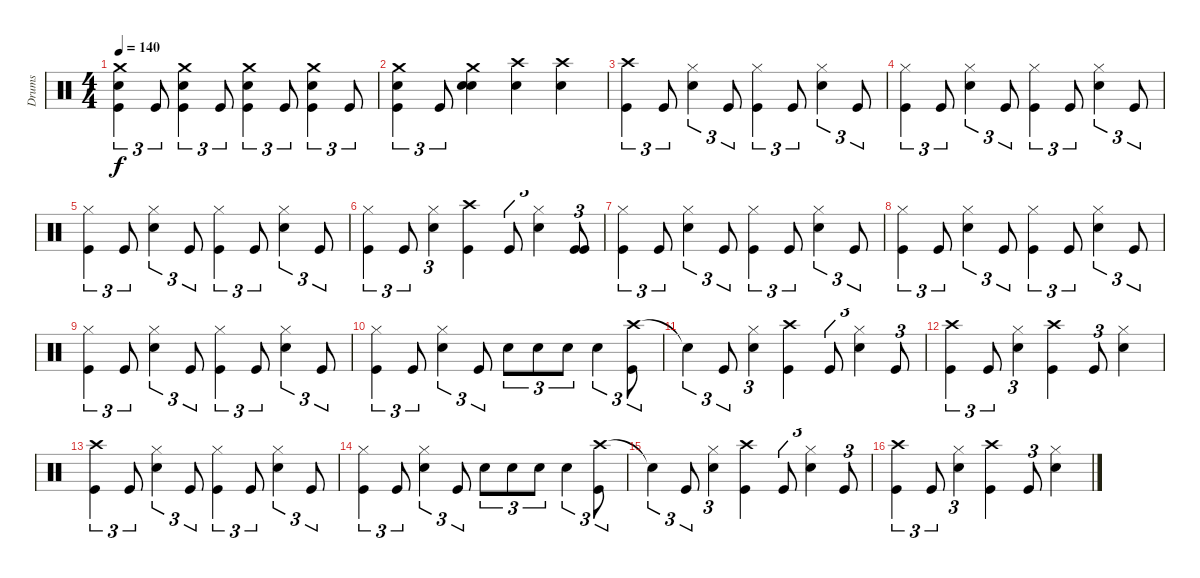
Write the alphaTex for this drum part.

\track ("Drums" "Drums") {instrument percussion}
\staff {score}
\articulation defaults
\ts (4 4)
\tempo 140
\clef neutral
\ks c
("Crash medium (hit)" "Snare (hit) 2" "Kick (hit)").4{tu (3 2) dy f} "Kick (hit)".8{tu (3 2)} ("Crash medium (hit)" "Snare (hit) 2" "Kick (hit)").4{tu (3 2)} "Kick (hit)".8{tu (3 2)} ("Crash medium (hit)" "Snare (hit) 2" "Kick (hit)").4{tu (3 2)} "Kick (hit)".8{tu (3 2)} ("Crash medium (hit)" "Snare (hit) 2" "Kick (hit)").4{tu (3 2)} "Kick (hit)".8{tu (3 2)} |
("Crash medium (hit)" "Snare (hit) 2" "Kick (hit)").4{tu (3 2)} "Kick (hit)".8{tu (3 2)} ("Crash medium (hit)" "Snare (hit) 2" "Snare (hit) 2").4 ("Crash high (hit)" "Snare (hit) 2").4 ("Crash high (hit)" "Snare (hit) 2").4 |
("Crash high (hit)" "Kick (hit)").4{tu (3 2)} "Kick (hit)".8{tu (3 2)} ("Hi-Hat (closed)" "Snare (hit) 2").4{tu (3 2)} "Kick (hit)".8{tu (3 2)} ("Hi-Hat (closed)" "Kick (hit)").4{tu (3 2)} "Kick (hit)".8{tu (3 2)} ("Hi-Hat (closed)" "Snare (hit) 2").4{tu (3 2)} "Kick (hit)".8{tu (3 2)} |
("Hi-Hat (closed)" "Kick (hit)").4{tu (3 2)} "Kick (hit)".8{tu (3 2)} ("Hi-Hat (closed)" "Snare (hit) 2").4{tu (3 2)} "Kick (hit)".8{tu (3 2)} ("Hi-Hat (closed)" "Kick (hit)").4{tu (3 2)} "Kick (hit)".8{tu (3 2)} ("Hi-Hat (closed)" "Snare (hit) 2").4{tu (3 2)} "Kick (hit)".8{tu (3 2)} |
("Hi-Hat (closed)" "Kick (hit)").4{tu (3 2)} "Kick (hit)".8{tu (3 2)} ("Hi-Hat (closed)" "Snare (hit) 2").4{tu (3 2)} "Kick (hit)".8{tu (3 2)} ("Hi-Hat (closed)" "Kick (hit)").4{tu (3 2)} "Kick (hit)".8{tu (3 2)} ("Hi-Hat (closed)" "Snare (hit) 2").4{tu (3 2)} "Kick (hit)".8{tu (3 2)} |
("Hi-Hat (closed)" "Kick (hit)").4{tu (3 2)} "Kick (hit)".8{tu (3 2)} ("Hi-Hat (closed)" "Snare (hit) 2").4{tu (3 2)} ("Crash high (hit)" "Kick (hit)").4 "Kick (hit)".8{tu (3 2)} ("Hi-Hat (closed)" "Snare (hit) 2").4{tu (3 2)} ("Kick (hit)" "Kick (hit)").8{tu (3 2)} |
("Hi-Hat (closed)" "Kick (hit)").4{tu (3 2)} "Kick (hit)".8{tu (3 2)} ("Hi-Hat (closed)" "Snare (hit) 2").4{tu (3 2)} "Kick (hit)".8{tu (3 2)} ("Hi-Hat (closed)" "Kick (hit)").4{tu (3 2)} "Kick (hit)".8{tu (3 2)} ("Hi-Hat (closed)" "Snare (hit) 2").4{tu (3 2)} "Kick (hit)".8{tu (3 2)} |
("Hi-Hat (closed)" "Kick (hit)").4{tu (3 2)} "Kick (hit)".8{tu (3 2)} ("Hi-Hat (closed)" "Snare (hit) 2").4{tu (3 2)} "Kick (hit)".8{tu (3 2)} ("Hi-Hat (closed)" "Kick (hit)").4{tu (3 2)} "Kick (hit)".8{tu (3 2)} ("Hi-Hat (closed)" "Snare (hit) 2").4{tu (3 2)} "Kick (hit)".8{tu (3 2)} |
("Hi-Hat (closed)" "Kick (hit)").4{tu (3 2)} "Kick (hit)".8{tu (3 2)} ("Hi-Hat (closed)" "Snare (hit) 2").4{tu (3 2)} "Kick (hit)".8{tu (3 2)} ("Hi-Hat (closed)" "Kick (hit)").4{tu (3 2)} "Kick (hit)".8{tu (3 2)} ("Hi-Hat (closed)" "Snare (hit) 2").4{tu (3 2)} "Kick (hit)".8{tu (3 2)} |
("Hi-Hat (closed)" "Kick (hit)").4{tu (3 2)} "Kick (hit)".8{tu (3 2)} ("Hi-Hat (closed)" "Snare (hit) 2").4{tu (3 2)} "Kick (hit)".8{tu (3 2)} "Snare (hit) 2".8{tu (3 2)} "Snare (hit) 2".8{tu (3 2)} "Snare (hit) 2".8{tu (3 2)} "Snare (hit) 2".4{tu (3 2)} ("Crash high (hit)" "Kick (hit)").8{tu (3 2)} |
"Snare (hit)"{t}.4{tu (3 2)} "Kick (hit)".8{tu (3 2)} ("Hi-Hat (closed)" "Snare (hit) 2").4{tu (3 2)} ("Crash high (hit)" "Kick (hit)").4 "Kick (hit)".8{tu (3 2)} ("Hi-Hat (closed)" "Snare (hit) 2").4{tu (3 2)} "Kick (hit)".8{tu (3 2)} |
("Crash high (hit)" "Kick (hit)").4{tu (3 2)} "Kick (hit)".8{tu (3 2)} ("Hi-Hat (closed)" "Snare (hit) 2").4{tu (3 2)} ("Crash high (hit)" "Kick (hit)").4 "Kick (hit)".8{tu (3 2)} ("Hi-Hat (closed)" "Snare (hit) 2").4 |
("Crash high (hit)" "Kick (hit)").4{tu (3 2)} "Kick (hit)".8{tu (3 2)} ("Hi-Hat (closed)" "Snare (hit) 2").4{tu (3 2)} "Kick (hit)".8{tu (3 2)} ("Hi-Hat (closed)" "Kick (hit)").4{tu (3 2)} "Kick (hit)".8{tu (3 2)} ("Hi-Hat (closed)" "Snare (hit) 2").4{tu (3 2)} "Kick (hit)".8{tu (3 2)} |
("Hi-Hat (closed)" "Kick (hit)").4{tu (3 2)} "Kick (hit)".8{tu (3 2)} ("Hi-Hat (closed)" "Snare (hit) 2").4{tu (3 2)} "Kick (hit)".8{tu (3 2)} "Snare (hit) 2".8{tu (3 2)} "Snare (hit) 2".8{tu (3 2)} "Snare (hit) 2".8{tu (3 2)} "Snare (hit) 2".4{tu (3 2)} ("Crash high (hit)" "Kick (hit)").8{tu (3 2)} |
"Snare (hit)"{t}.4{tu (3 2)} "Kick (hit)".8{tu (3 2)} ("Hi-Hat (closed)" "Snare (hit) 2").4{tu (3 2)} ("Crash high (hit)" "Kick (hit)").4 "Kick (hit)".8{tu (3 2)} ("Hi-Hat (closed)" "Snare (hit) 2").4{tu (3 2)} "Kick (hit)".8{tu (3 2)} |
("Crash high (hit)" "Kick (hit)").4{tu (3 2)} "Kick (hit)".8{tu (3 2)} ("Hi-Hat (closed)" "Snare (hit) 2").4{tu (3 2)} ("Crash high (hit)" "Kick (hit)").4 "Kick (hit)".8{tu (3 2)} ("Hi-Hat (closed)" "Snare (hit) 2").4
